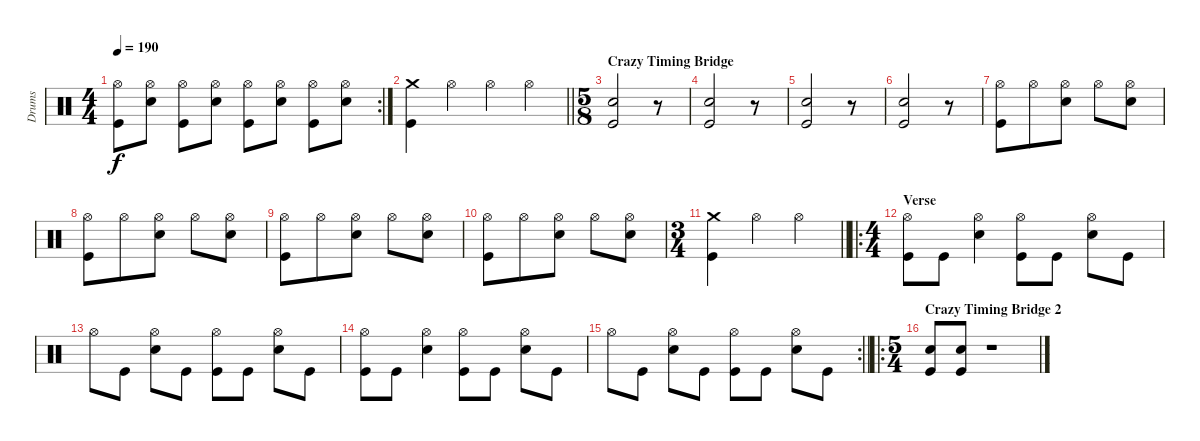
\track ("Drums" "Drums") {instrument percussion}
\staff {score}
\articulation defaults
\rc 2
\ts (4 4)
\tempo 190
\clef neutral
\ks c
("Hi-Hat (open)" "Kick (hit)").8{dy f} ("Hi-Hat (open)" "Snare (hit) 2").8 ("Hi-Hat (open)" "Kick (hit)").8 ("Hi-Hat (open)" "Snare (hit) 2").8 ("Hi-Hat (open)" "Kick (hit)").8 ("Hi-Hat (open)" "Snare (hit) 2").8 ("Hi-Hat (open)" "Kick (hit)").8 ("Hi-Hat (open)" "Snare (hit) 2").8 |
\barLineRight lightlight
("Crash medium (hit)" "Kick (hit)").4 "Hi-Hat (open)".4 "Hi-Hat (open)".4 "Hi-Hat (open)".4 |
\ts (5 8)
\section ("" "Crazy Timing Bridge")
("Snare (hit) 2" "Kick (hit)").2 r.8 |
("Snare (hit) 2" "Kick (hit)").2 r.8 |
("Snare (hit) 2" "Kick (hit)").2 r.8 |
("Snare (hit) 2" "Kick (hit)").2 r.8 |
("Hi-Hat (open)" "Kick (hit)").8 "Hi-Hat (open)".8 ("Hi-Hat (open)" "Snare (hit) 2").8 "Hi-Hat (open)".8 ("Hi-Hat (open)" "Snare (hit) 2").8 |
("Hi-Hat (open)" "Kick (hit)").8 "Hi-Hat (open)".8 ("Hi-Hat (open)" "Snare (hit) 2").8 "Hi-Hat (open)".8 ("Hi-Hat (open)" "Snare (hit) 2").8 |
("Hi-Hat (open)" "Kick (hit)").8 "Hi-Hat (open)".8 ("Hi-Hat (open)" "Snare (hit) 2").8 "Hi-Hat (open)".8 ("Hi-Hat (open)" "Snare (hit) 2").8 |
("Hi-Hat (open)" "Kick (hit)").8 "Hi-Hat (open)".8 ("Hi-Hat (open)" "Snare (hit) 2").8 "Hi-Hat (open)".8 ("Hi-Hat (open)" "Snare (hit) 2").8 |
\ts (3 4)
\barLineRight lightlight
("Crash medium (hit)" "Kick (hit)").4 "Hi-Hat (open)".4 "Hi-Hat (open)".4 |
\ro
\ts (4 4)
\section ("" "Verse")
("Hi-Hat (open)" "Kick (hit)").8 "Kick (hit)".8 ("Hi-Hat (open)" "Snare (hit) 2").4 ("Hi-Hat (open)" "Kick (hit)").8 "Kick (hit)".8 ("Hi-Hat (open)" "Snare (hit) 2").8 "Kick (hit)".8 |
"Hi-Hat (open)".8 "Kick (hit)".8 ("Hi-Hat (open)" "Snare (hit) 2").8 "Kick (hit)".8 ("Hi-Hat (open)" "Kick (hit)").8 "Kick (hit)".8 ("Hi-Hat (open)" "Snare (hit) 2").8 "Kick (hit)".8 |
("Hi-Hat (open)" "Kick (hit)").8 "Kick (hit)".8 ("Hi-Hat (open)" "Snare (hit) 2").4 ("Hi-Hat (open)" "Kick (hit)").8 "Kick (hit)".8 ("Hi-Hat (open)" "Snare (hit) 2").8 "Kick (hit)".8 |
\rc 2
\barLineRight lightlight "Hi-Hat (open)".8 "Kick (hit)".8
("Hi-Hat (open)" "Snare (hit) 2").8 "Kick (hit)".8 ("Hi-Hat (open)" "Kick (hit)").8 "Kick (hit)".8 ("Hi-Hat (open)" "Snare (hit) 2").8 "Kick (hit)".8 |
\ro
\ts (5 4)
\section ("" "Crazy Timing Bridge 2")
("Snare (hit) 2" "Kick (hit)").8 ("Snare (hit) 2" "Kick (hit)").8 r.1
